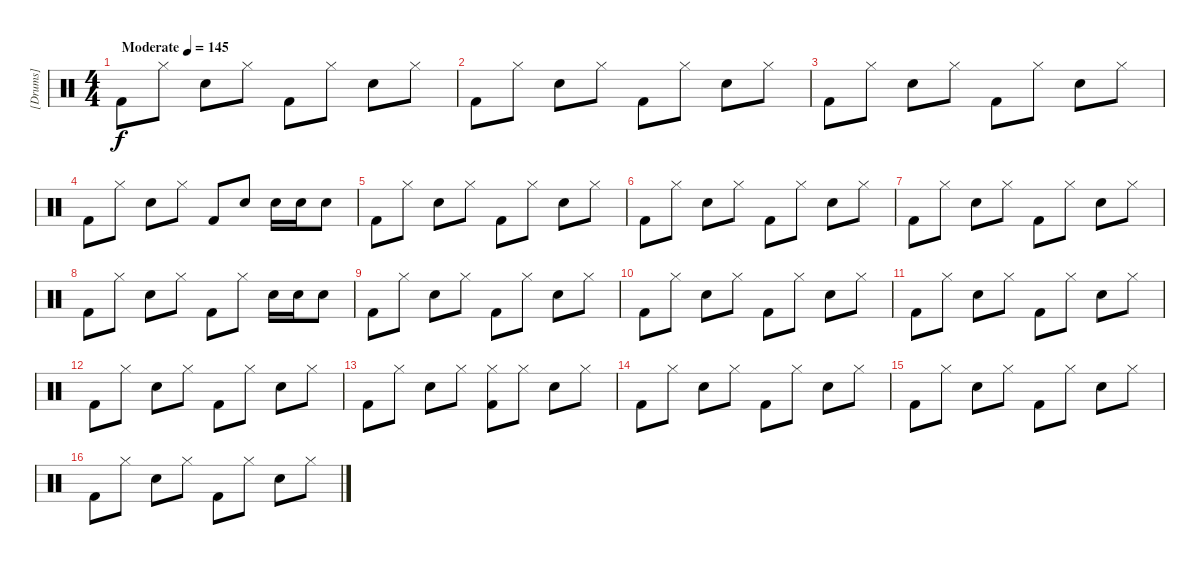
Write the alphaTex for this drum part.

\track ("[Drums]" "[Drums]") {instrument percussion}
\staff {score}
\articulation defaults
\ts (4 4)
\tempo (145 "Moderate")
\clef neutral
\ks c "Kick (hit) 2".8{dy f} "Hi-Hat (closed)".8 "Electric Snare (hit)".8 "Hi-Hat (closed)".8 "Kick (hit) 2".8 "Hi-Hat (closed)".8 "Electric Snare (hit)".8 "Hi-Hat (closed)".8
|
"Kick (hit) 2".8 "Hi-Hat (closed)".8 "Electric Snare (hit)".8 "Hi-Hat (closed)".8 "Kick (hit) 2".8 "Hi-Hat (closed)".8 "Electric Snare (hit)".8 "Hi-Hat (closed)".8 |
"Kick (hit) 2".8 "Hi-Hat (closed)".8 "Electric Snare (hit)".8 "Hi-Hat (closed)".8 "Kick (hit) 2".8 "Hi-Hat (closed)".8 "Electric Snare (hit)".8 "Hi-Hat (closed)".8 |
"Kick (hit) 2".8 "Hi-Hat (closed)".8 "Electric Snare (hit)".8 "Hi-Hat (closed)".8 "Kick (hit) 2".8 "Electric Snare (hit)".8 "Electric Snare (hit)".16 "Electric Snare (hit)".16 "Electric Snare (hit)".8 |
"Kick (hit) 2".8 "Hi-Hat (closed)".8 "Electric Snare (hit)".8 "Hi-Hat (closed)".8 "Kick (hit) 2".8 "Hi-Hat (closed)".8 "Electric Snare (hit)".8 "Hi-Hat (closed)".8 |
"Kick (hit) 2".8 "Hi-Hat (closed)".8 "Electric Snare (hit)".8 "Hi-Hat (closed)".8 "Kick (hit) 2".8 "Hi-Hat (closed)".8 "Electric Snare (hit)".8 "Hi-Hat (closed)".8 |
"Kick (hit) 2".8 "Hi-Hat (closed)".8 "Electric Snare (hit)".8 "Hi-Hat (closed)".8 "Kick (hit) 2".8 "Hi-Hat (closed)".8 "Electric Snare (hit)".8 "Hi-Hat (closed)".8 |
"Kick (hit) 2".8 "Hi-Hat (closed)".8 "Electric Snare (hit)".8 "Hi-Hat (closed)".8 "Kick (hit) 2".8 "Hi-Hat (closed)".8 "Electric Snare (hit)".16 "Electric Snare (hit)".16 "Electric Snare (hit)".8 |
"Kick (hit) 2".8 "Hi-Hat (closed)".8 "Electric Snare (hit)".8 "Hi-Hat (closed)".8 "Kick (hit) 2".8 "Hi-Hat (closed)".8 "Electric Snare (hit)".8 "Hi-Hat (closed)".8 |
"Kick (hit) 2".8 "Hi-Hat (closed)".8 "Electric Snare (hit)".8 "Hi-Hat (closed)".8 "Kick (hit) 2".8 "Hi-Hat (closed)".8 "Electric Snare (hit)".8 "Hi-Hat (closed)".8 |
"Kick (hit) 2".8 "Hi-Hat (closed)".8 "Electric Snare (hit)".8 "Hi-Hat (closed)".8 "Kick (hit) 2".8 "Hi-Hat (closed)".8 "Electric Snare (hit)".8 "Hi-Hat (closed)".8 |
"Kick (hit) 2".8 "Hi-Hat (closed)".8 "Electric Snare (hit)".8 "Hi-Hat (closed)".8 "Kick (hit) 2".8 "Hi-Hat (closed)".8 "Electric Snare (hit)".8 "Hi-Hat (closed)".8 |
"Kick (hit) 2".8 "Hi-Hat (closed)".8 "Electric Snare (hit)".8 "Hi-Hat (closed)".8 ("Hi-Hat (closed)" "Kick (hit) 2").8 "Hi-Hat (closed)".8 "Electric Snare (hit)".8 "Hi-Hat (closed)".8 |
"Kick (hit) 2".8 "Hi-Hat (closed)".8 "Electric Snare (hit)".8 "Hi-Hat (closed)".8 "Kick (hit) 2".8 "Hi-Hat (closed)".8 "Electric Snare (hit)".8 "Hi-Hat (closed)".8 |
"Kick (hit) 2".8 "Hi-Hat (closed)".8 "Electric Snare (hit)".8 "Hi-Hat (closed)".8 "Kick (hit) 2".8 "Hi-Hat (closed)".8 "Electric Snare (hit)".8 "Hi-Hat (closed)".8 |
"Kick (hit) 2".8 "Hi-Hat (closed)".8 "Electric Snare (hit)".8 "Hi-Hat (closed)".8 "Kick (hit) 2".8 "Hi-Hat (closed)".8 "Electric Snare (hit)".8 "Hi-Hat (closed)".8
